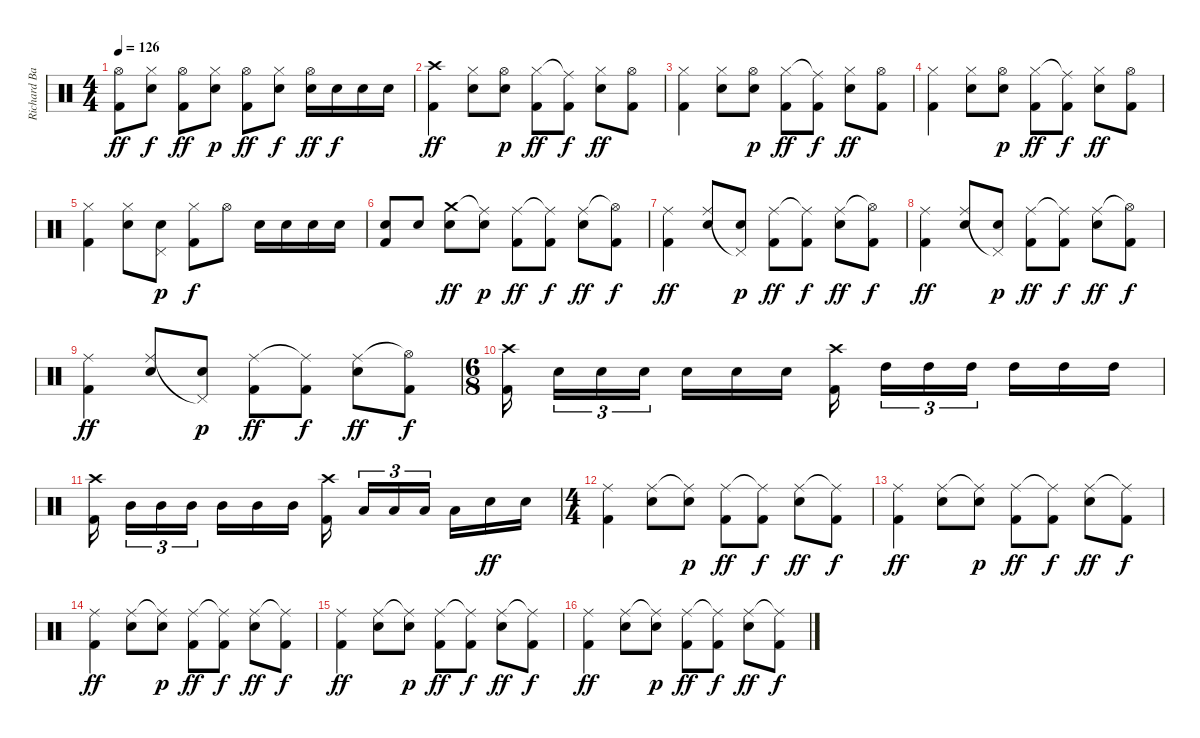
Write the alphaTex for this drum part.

\track ("Richard Bailey" "Richard Ba") {instrument percussion}
\staff {score}
\articulation defaults
\ts (4 4)
\tempo 126
\clef neutral
\ks c
("Hi-Hat (open)" "Kick (hit) 2").8{dy ff} ("Hi-Hat (closed)" "Snare (hit) 2").8{dy f} ("Hi-Hat (open)" "Kick (hit) 2").8{dy ff} ("Hi-Hat (closed)" "Snare (hit) 2").8{dy p} ("Hi-Hat (open)" "Kick (hit) 2").8{dy ff} ("Hi-Hat (closed)" "Snare (hit) 2").8{dy f} ("Hi-Hat (open)" "Electric Snare (hit)").16{dy ff} "Electric Snare (hit)".16{dy f} "Electric Snare (hit)".16 "Electric Snare (hit)".16 |
("Crash high (hit)" "Kick (hit) 2").4{dy ff} ("Hi-Hat (closed)" "Snare (hit) 2").8 ("Hi-Hat (open)" "Snare (hit) 2").8{dy p} ("Hi-Hat (closed)" "Kick (hit) 2").8{dy ff} ("Ride (middle)"{t} "Kick (hit) 2").8{dy f} ("Hi-Hat (closed)" "Snare (hit) 2").8{dy ff} ("Hi-Hat (open)" "Kick (hit) 2").8 |
("Hi-Hat (closed)" "Kick (hit) 2").4 ("Hi-Hat (closed)" "Snare (hit) 2").8 ("Hi-Hat (open)" "Snare (hit) 2").8{dy p} ("Hi-Hat (closed)" "Kick (hit) 2").8{dy ff} ("Ride (middle)"{t} "Kick (hit) 2").8{dy f} ("Hi-Hat (closed)" "Snare (hit) 2").8{dy ff} ("Hi-Hat (open)" "Kick (hit) 2").8 |
("Hi-Hat (closed)" "Kick (hit) 2").4 ("Hi-Hat (closed)" "Snare (hit) 2").8 ("Hi-Hat (open)" "Snare (hit) 2").8{dy p} ("Hi-Hat (closed)" "Kick (hit) 2").8{dy ff} ("Ride (middle)"{t} "Kick (hit) 2").8{dy f} ("Hi-Hat (closed)" "Snare (hit) 2").8{dy ff} ("Hi-Hat (open)" "Kick (hit) 2").8 |
("Hi-Hat (closed)" "Kick (hit) 2").4 ("Hi-Hat (closed)" "Snare (hit) 2").8 ("Pedal Hi-Hat (hit)" "Snare (hit) 2").8{dy p} ("Hi-Hat (closed)" "Kick (hit) 2").8{dy f} "Hi-Hat (open)".8 "Electric Snare (hit)".16 "Electric Snare (hit)".16 "Electric Snare (hit)".16 "Electric Snare (hit)".16 |
("Snare (hit) 2" "Kick (hit) 2").8 "Snare (hit) 2".8 ("Crash medium (hit)" "Snare (hit) 2").8{dy ff} ("Ride (middle)"{t} "Snare (hit) 2").8{dy p} ("Ride (middle)" "Kick (hit) 2").8{dy ff} ("Ride (middle)"{t} "Kick (hit) 2").8{dy f} ("Ride (middle)" "Snare (hit) 2").8{dy ff} ("Hi-Hat (open)"{t} "Kick (hit) 2").8{dy f} |
("Ride (middle)" "Kick (hit) 2").4{dy ff} ("Ride (middle)" "Snare (hit) 2").8 ("Pedal Hi-Hat (hit)"{t} "Snare (hit) 2").8{dy p} ("Ride (middle)" "Kick (hit) 2").8{dy ff} ("Ride (middle)"{t} "Kick (hit) 2").8{dy f} ("Ride (middle)" "Snare (hit) 2").8{dy ff} ("Hi-Hat (open)"{t} "Kick (hit) 2").8{dy f} |
("Ride (middle)" "Kick (hit) 2").4{dy ff} ("Ride (middle)" "Snare (hit) 2").8 ("Pedal Hi-Hat (hit)"{t} "Snare (hit) 2").8{dy p} ("Ride (middle)" "Kick (hit) 2").8{dy ff} ("Ride (middle)"{t} "Kick (hit) 2").8{dy f} ("Ride (middle)" "Snare (hit) 2").8{dy ff} ("Hi-Hat (open)"{t} "Kick (hit) 2").8{dy f} |
("Ride (middle)" "Kick (hit) 2").4{dy ff} ("Ride (middle)" "Snare (hit) 2").8 ("Pedal Hi-Hat (hit)"{t} "Snare (hit) 2").8{dy p} ("Ride (middle)" "Kick (hit) 2").8{dy ff} ("Ride (middle)"{t} "Kick (hit) 2").8{dy f} ("Ride (middle)" "Snare (hit) 2").8{dy ff} ("Hi-Hat (open)"{t} "Kick (hit) 2").8{dy f} |
\ts (6 8)
("Crash high (hit)" "Kick (hit) 2").16 "Snare (hit) 2".16{tu (3 2)} "Snare (hit) 2".16{tu (3 2)} "Snare (hit) 2".16{tu (3 2)} "Snare (hit) 2".16 "Snare (hit) 2".16 "Snare (hit) 2".16 ("Crash high (hit)" "Kick (hit) 2").16 "High Tom (hit)".16{tu (3 2)} "High Tom (hit)".16{tu (3 2)} "High Tom (hit)".16{tu (3 2)} "High Tom (hit)".16 "High Tom (hit)".16 "High Tom (hit)".16 |
("Crash high (hit)" "Kick (hit) 2").16 "Mid Tom (hit)".16{tu (3 2)} "Mid Tom (hit)".16{tu (3 2)} "Mid Tom (hit)".16{tu (3 2)} "Mid Tom (hit)".16 "Mid Tom (hit)".16 "Mid Tom (hit)".16 ("Crash high (hit)" "Kick (hit) 2").16 "Low Floor Tom (hit)".16{tu (3 2)} "Low Floor Tom (hit)".16{tu (3 2)} "Low Floor Tom (hit)".16{tu (3 2)} "Low Floor Tom (hit)".16 "Electric Snare (hit)".16{dy ff} "Electric Snare (hit)".16 |
\ts (4 4)
("Ride (middle)" "Kick (hit) 2").4 ("Ride (middle)" "Snare (hit) 2").8 ("Ride (middle)"{t} "Snare (hit) 2").8{dy p} ("Ride (middle)" "Kick (hit) 2").8{dy ff} ("Ride (middle)"{t} "Kick (hit) 2").8{dy f} ("Ride (middle)" "Snare (hit) 2").8{dy ff} ("Ride (middle)"{t} "Kick (hit) 2").8{dy f} |
("Ride (middle)" "Kick (hit) 2").4{dy ff} ("Ride (middle)" "Snare (hit) 2").8 ("Ride (middle)"{t} "Snare (hit) 2").8{dy p} ("Ride (middle)" "Kick (hit) 2").8{dy ff} ("Ride (middle)"{t} "Kick (hit) 2").8{dy f} ("Ride (middle)" "Snare (hit) 2").8{dy ff} ("Ride (middle)"{t} "Kick (hit) 2").8{dy f} |
("Ride (middle)" "Kick (hit) 2").4{dy ff} ("Ride (middle)" "Snare (hit) 2").8 ("Ride (middle)"{t} "Snare (hit) 2").8{dy p} ("Ride (middle)" "Kick (hit) 2").8{dy ff} ("Ride (middle)"{t} "Kick (hit) 2").8{dy f} ("Ride (middle)" "Snare (hit) 2").8{dy ff} ("Ride (middle)"{t} "Kick (hit) 2").8{dy f} |
("Ride (middle)" "Kick (hit) 2").4{dy ff} ("Ride (middle)" "Snare (hit) 2").8 ("Ride (middle)"{t} "Snare (hit) 2").8{dy p} ("Ride (middle)" "Kick (hit) 2").8{dy ff} ("Ride (middle)"{t} "Kick (hit) 2").8{dy f} ("Ride (middle)" "Snare (hit) 2").8{dy ff} ("Ride (middle)"{t} "Kick (hit) 2").8{dy f} |
("Ride (middle)" "Kick (hit) 2").4{dy ff} ("Ride (middle)" "Snare (hit) 2").8 ("Ride (middle)"{t} "Snare (hit) 2").8{dy p} ("Ride (middle)" "Kick (hit) 2").8{dy ff} ("Ride (middle)"{t} "Kick (hit) 2").8{dy f} ("Ride (middle)" "Snare (hit) 2").8{dy ff} ("Ride (middle)"{t} "Kick (hit) 2").8{dy f}
